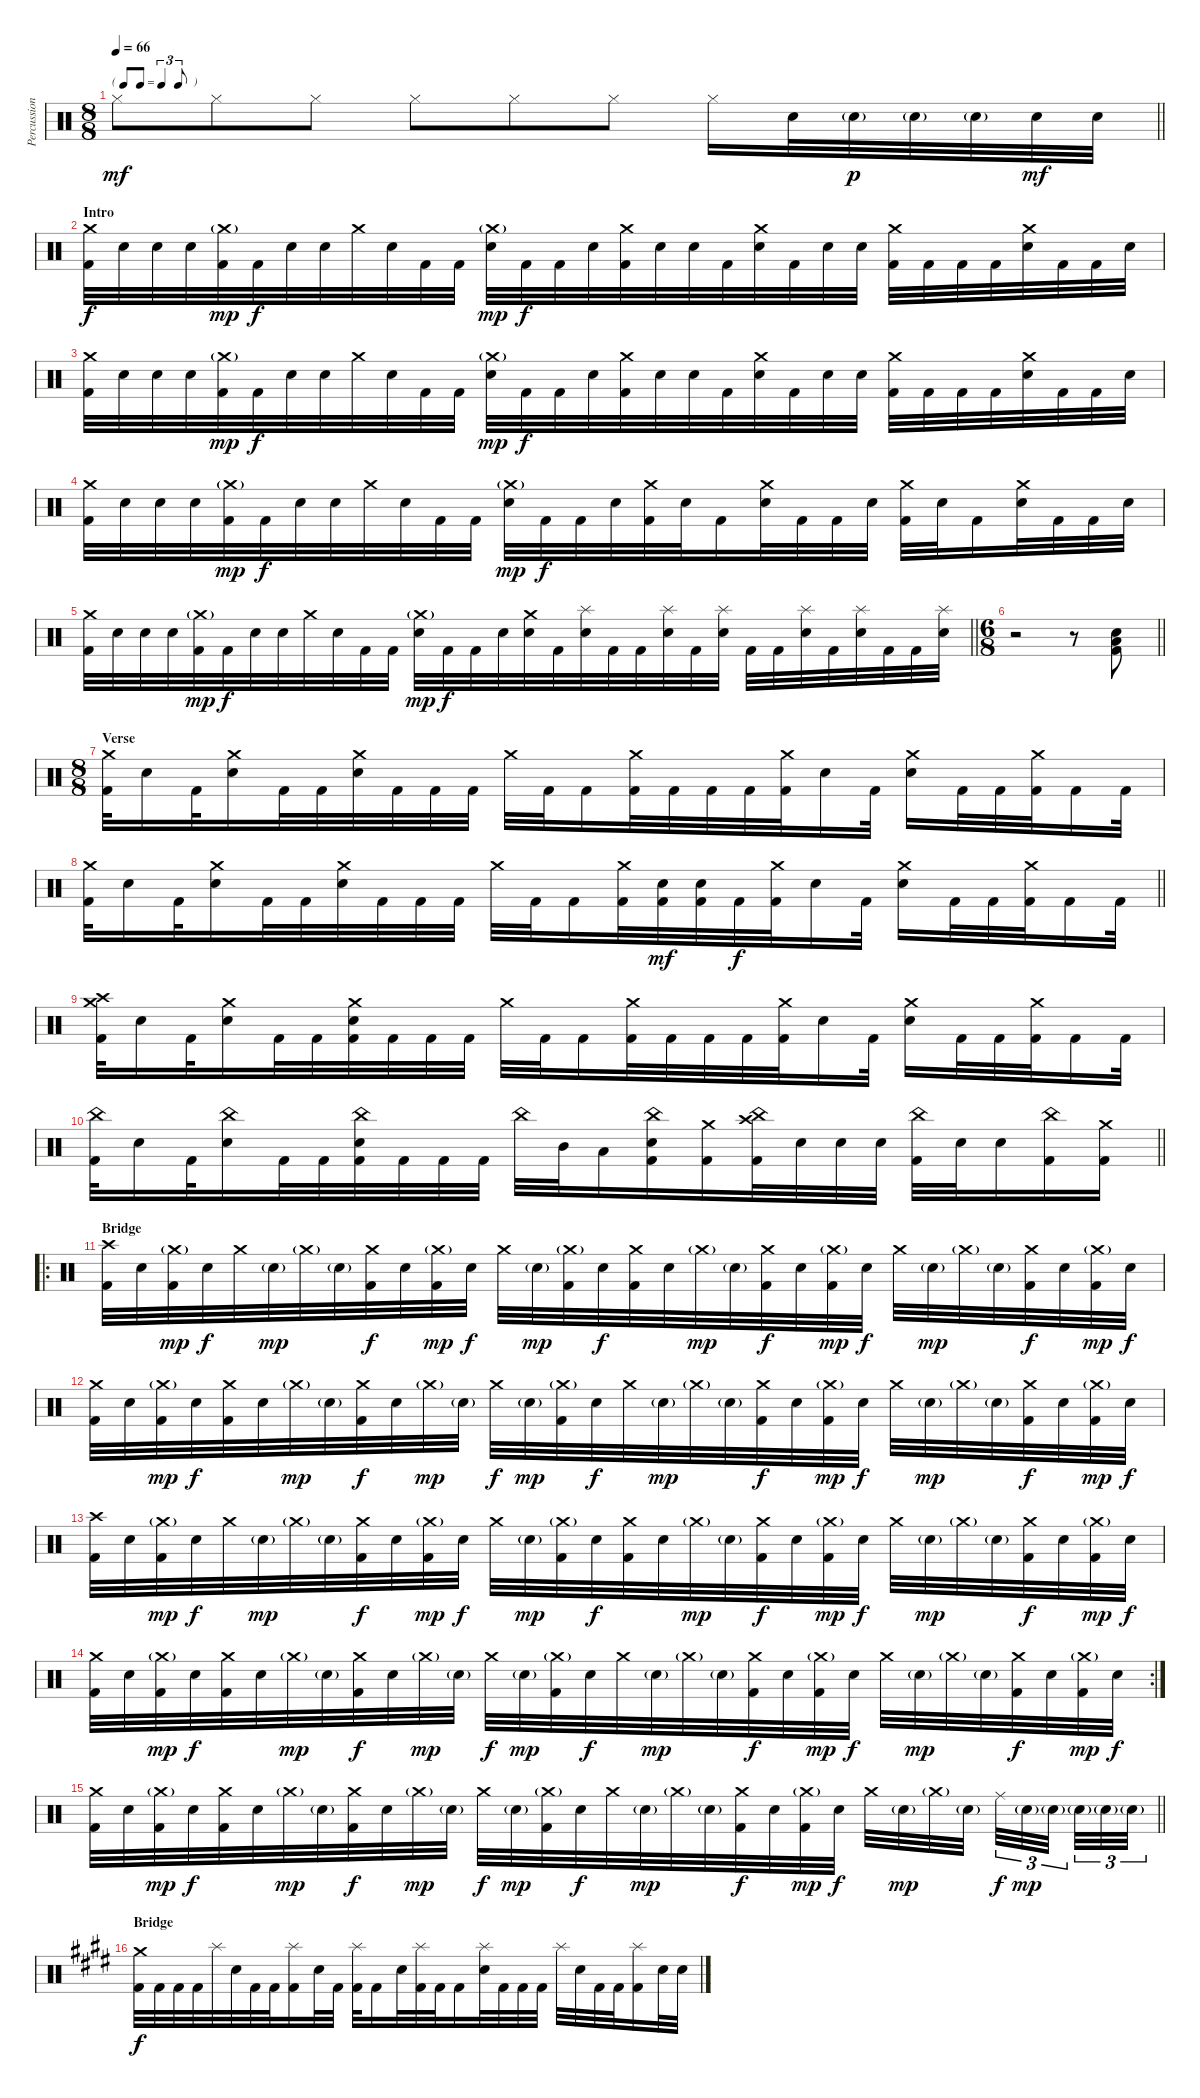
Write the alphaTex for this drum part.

\track ("Percussion" "Percussion") {instrument percussion}
\staff {score}
\articulation defaults
\ts (8 8)
\tf triplet8th
\tempo 66
\clef neutral
\barLineRight lightlight
\ks c "Hi-Hat (closed)".8{dy mf} "Hi-Hat (closed)".8 "Hi-Hat (closed)".8 "Hi-Hat (closed)".8 "Hi-Hat (closed)".8 "Hi-Hat (closed)".8 "Hi-Hat (closed)".16 "Electric Snare (hit)".32 "Electric Snare (hit)"{g}.32{dy p} "Electric Snare (hit)"{g}.32 "Electric Snare (hit)"{g}.32 "Electric Snare (hit)".32{dy mf} "Electric Snare (hit)".32
|
\section ("" "Intro")
("Crash medium (hit)" "Kick (hit) 2").32{dy f} "Electric Snare (hit)".32 "Electric Snare (hit)".32 "Electric Snare (hit)".32 ("Crash medium (hit)"{g} "Kick (hit) 2").32{dy mp} "Kick (hit) 2".32{dy f} "Electric Snare (hit)".32 "Electric Snare (hit)".32 "Crash medium (hit)".32 "Electric Snare (hit)".32 "Kick (hit) 2".32 "Kick (hit) 2".32 ("Crash medium (hit)"{g} "Electric Snare (hit)").32{dy mp} "Kick (hit) 2".32{dy f} "Kick (hit) 2".32 "Electric Snare (hit)".32 ("Crash medium (hit)" "Kick (hit) 2").32 "Electric Snare (hit)".32 "Electric Snare (hit)".32 "Kick (hit) 2".32 ("Crash medium (hit)" "Electric Snare (hit)").32 "Kick (hit) 2".32 "Electric Snare (hit)".32 "Electric Snare (hit)".32 ("Crash medium (hit)" "Kick (hit) 2").32 "Kick (hit) 2".32 "Kick (hit) 2".32 "Kick (hit) 2".32 ("Crash medium (hit)" "Electric Snare (hit)").32 "Kick (hit) 2".32 "Kick (hit) 2".32 "Electric Snare (hit)".32 |
("Crash medium (hit)" "Kick (hit) 2").32 "Electric Snare (hit)".32 "Electric Snare (hit)".32 "Electric Snare (hit)".32 ("Crash medium (hit)"{g} "Kick (hit) 2").32{dy mp} "Kick (hit) 2".32{dy f} "Electric Snare (hit)".32 "Electric Snare (hit)".32 "Crash medium (hit)".32 "Electric Snare (hit)".32 "Kick (hit) 2".32 "Kick (hit) 2".32 ("Crash medium (hit)"{g} "Electric Snare (hit)").32{dy mp} "Kick (hit) 2".32{dy f} "Kick (hit) 2".32 "Electric Snare (hit)".32 ("Crash medium (hit)" "Kick (hit) 2").32 "Electric Snare (hit)".32 "Electric Snare (hit)".32 "Kick (hit) 2".32 ("Crash medium (hit)" "Electric Snare (hit)").32 "Kick (hit) 2".32 "Electric Snare (hit)".32 "Electric Snare (hit)".32 ("Crash medium (hit)" "Kick (hit) 2").32 "Kick (hit) 2".32 "Kick (hit) 2".32 "Kick (hit) 2".32 ("Crash medium (hit)" "Electric Snare (hit)").32 "Kick (hit) 2".32 "Kick (hit) 2".32 "Electric Snare (hit)".32 |
("Crash medium (hit)" "Kick (hit) 2").32 "Electric Snare (hit)".32 "Electric Snare (hit)".32 "Electric Snare (hit)".32 ("Crash medium (hit)"{g} "Kick (hit) 2").32{dy mp} "Kick (hit) 2".32{dy f} "Electric Snare (hit)".32 "Electric Snare (hit)".32 "Crash medium (hit)".32 "Electric Snare (hit)".32 "Kick (hit) 2".32 "Kick (hit) 2".32 ("Crash medium (hit)"{g} "Electric Snare (hit)").32{dy mp} "Kick (hit) 2".32{dy f} "Kick (hit) 2".32 "Electric Snare (hit)".32 ("Crash medium (hit)" "Kick (hit) 2").32 "Electric Snare (hit)".32 "Kick (hit) 2".16 ("Crash medium (hit)" "Electric Snare (hit)").32 "Kick (hit) 2".32 "Kick (hit) 2".32 "Electric Snare (hit)".32 ("Crash medium (hit)" "Kick (hit) 2").32 "Electric Snare (hit)".32 "Kick (hit) 2".16 ("Crash medium (hit)" "Electric Snare (hit)").32 "Kick (hit) 2".32 "Kick (hit) 2".32 "Electric Snare (hit)".32 |
\barLineRight lightlight
("Crash medium (hit)" "Kick (hit) 2").32 "Electric Snare (hit)".32 "Electric Snare (hit)".32 "Electric Snare (hit)".32 ("Crash medium (hit)"{g} "Kick (hit) 2").32{dy mp} "Kick (hit) 2".32{dy f} "Electric Snare (hit)".32 "Electric Snare (hit)".32 "Crash medium (hit)".32 "Electric Snare (hit)".32 "Kick (hit) 2".32 "Kick (hit) 2".32 ("Crash medium (hit)"{g} "Electric Snare (hit)").32{dy mp} "Kick (hit) 2".32{dy f} "Kick (hit) 2".32 "Electric Snare (hit)".32 ("Crash medium (hit)" "Electric Snare (hit)").32 "Kick (hit) 2".32 ("Splash (hit)" "Electric Snare (hit)").32 "Kick (hit) 2".32 "Kick (hit) 2".32 ("Splash (hit)" "Electric Snare (hit)").32 "Kick (hit) 2".32 ("Splash (hit)" "Electric Snare (hit)").32 "Kick (hit) 2".32 "Kick (hit) 2".32 ("Splash (hit)" "Electric Snare (hit)").32 "Kick (hit) 2".32 ("Splash (hit)" "Electric Snare (hit)").32 "Kick (hit) 2".32 "Kick (hit) 2".32 ("Splash (hit)" "Electric Snare (hit)").32 |
\ts (6 8)
\barLineRight lightlight
r.2 r.8 ("Electric Snare (hit)" "Low Floor Tom (hit)" "Kick (hit) 2").8 |
\ts (8 8)
\section ("" "Verse")
("Crash medium (hit)" "Kick (hit) 2").32 "Electric Snare (hit)".16 "Kick (hit) 2".32 ("Crash medium (hit)" "Electric Snare (hit)").16 "Kick (hit) 2".32 "Kick (hit) 2".32 ("Crash medium (hit)" "Electric Snare (hit)").32 "Kick (hit) 2".32 "Kick (hit) 2".32 "Kick (hit) 2".32 "Crash medium (hit)".32 "Kick (hit) 2".32 "Kick (hit) 2".16 ("Crash medium (hit)" "Kick (hit) 2").32 "Kick (hit) 2".32 "Kick (hit) 2".32 "Kick (hit) 2".32 ("Crash medium (hit)" "Kick (hit) 2").32 "Electric Snare (hit)".16 "Kick (hit) 2".32 ("Crash medium (hit)" "Electric Snare (hit)").16 "Kick (hit) 2".32 "Kick (hit) 2".32 ("Crash medium (hit)" "Kick (hit) 2").32 "Kick (hit) 2".16 "Kick (hit) 2".32 |
\barLineRight lightlight
("Crash medium (hit)" "Kick (hit) 2").32 "Electric Snare (hit)".16 "Kick (hit) 2".32 ("Crash medium (hit)" "Electric Snare (hit)").16 "Kick (hit) 2".32 "Kick (hit) 2".32 ("Crash medium (hit)" "Electric Snare (hit)").32 "Kick (hit) 2".32 "Kick (hit) 2".32 "Kick (hit) 2".32 "Crash medium (hit)".32 "Kick (hit) 2".32 "Kick (hit) 2".16 ("Crash medium (hit)" "Kick (hit) 2").32 ("Electric Snare (hit)" "Kick (hit) 2").32{dy mf} ("Electric Snare (hit)" "Kick (hit) 2").32 "Kick (hit) 2".32{dy f} ("Crash medium (hit)" "Kick (hit) 2").32 "Electric Snare (hit)".16 "Kick (hit) 2".32 ("Crash medium (hit)" "Electric Snare (hit)").16 "Kick (hit) 2".32 "Kick (hit) 2".32 ("Crash medium (hit)" "Kick (hit) 2").32 "Kick (hit) 2".16 "Kick (hit) 2".32 |
("Crash medium (hit)" "Crash high (hit)" "Kick (hit) 2").32 "Electric Snare (hit)".16 "Kick (hit) 2".32 ("Crash medium (hit)" "Electric Snare (hit)").16 "Kick (hit) 2".32 "Kick (hit) 2".32 ("Crash medium (hit)" "Electric Snare (hit)" "Kick (hit) 2").32 "Kick (hit) 2".32 "Kick (hit) 2".32 "Kick (hit) 2".32 "Crash medium (hit)".32 "Kick (hit) 2".32 "Kick (hit) 2".16 ("Crash medium (hit)" "Kick (hit) 2").32 "Kick (hit) 2".32 "Kick (hit) 2".32 "Kick (hit) 2".32 ("Crash medium (hit)" "Kick (hit) 2").32 "Electric Snare (hit)".16 "Kick (hit) 2".32 ("Crash medium (hit)" "Electric Snare (hit)").16 "Kick (hit) 2".32 "Kick (hit) 2".32 ("Crash medium (hit)" "Kick (hit) 2").32 "Kick (hit) 2".16 "Kick (hit) 2".32 |
\barLineRight lightlight
("China (hit)" "Kick (hit) 2").32 "Electric Snare (hit)".16 "Kick (hit) 2".32 ("China (hit)" "Electric Snare (hit)").16 "Kick (hit) 2".32 "Kick (hit) 2".32 ("China (hit)" "Electric Snare (hit)" "Kick (hit) 2").32 "Kick (hit) 2".32 "Kick (hit) 2".32 "Kick (hit) 2".32 "China (hit)".32 "Mid Tom (hit)".32 "Low Tom (hit)".16 ("China (hit)" "Electric Snare (hit)" "Kick (hit) 2").16 ("Crash medium (hit)" "Kick (hit) 2").16 ("China (hit)" "Crash high (hit)" "Kick (hit) 2").32 "Electric Snare (hit)".32 "Electric Snare (hit)".32 "Electric Snare (hit)".32 ("China (hit)" "Kick (hit) 2").32 "Electric Snare (hit)".32 "Electric Snare (hit)".16 ("China (hit)" "Kick (hit) 2").16 ("Crash medium (hit)" "Kick (hit) 2").16 |
\ro
\section ("" "Bridge")
("Crash high (hit)" "Kick (hit) 2").32 "Electric Snare (hit)".32 ("Crash medium (hit)"{g} "Kick (hit) 2").32{dy mp} "Electric Snare (hit)".32{dy f} "Crash medium (hit)".32 "Electric Snare (hit)"{g}.32{dy mp} "Crash medium (hit)"{g}.32 "Electric Snare (hit)"{g}.32 ("Crash medium (hit)" "Kick (hit) 2").32{dy f} "Electric Snare (hit)".32 ("Crash medium (hit)"{g} "Kick (hit) 2").32{dy mp} "Electric Snare (hit)".32{dy f} "Crash medium (hit)".32 "Electric Snare (hit)"{g}.32{dy mp} ("Crash medium (hit)"{g} "Kick (hit) 2").32 "Electric Snare (hit)".32{dy f} ("Crash medium (hit)" "Kick (hit) 2").32 "Electric Snare (hit)".32 "Crash medium (hit)"{g}.32{dy mp} "Electric Snare (hit)"{g}.32 ("Crash medium (hit)" "Kick (hit) 2").32{dy f} "Electric Snare (hit)".32 ("Crash medium (hit)"{g} "Kick (hit) 2").32{dy mp} "Electric Snare (hit)".32{dy f} "Crash medium (hit)".32 "Electric Snare (hit)"{g}.32{dy mp} "Crash medium (hit)"{g}.32 "Electric Snare (hit)"{g}.32 ("Crash medium (hit)" "Kick (hit) 2").32{dy f} "Electric Snare (hit)".32 ("Crash medium (hit)"{g} "Kick (hit) 2").32{dy mp} "Electric Snare (hit)".32{dy f} |
("Crash medium (hit)" "Kick (hit) 2").32 "Electric Snare (hit)".32 ("Crash medium (hit)"{g} "Kick (hit) 2").32{dy mp} "Electric Snare (hit)".32{dy f} ("Crash medium (hit)" "Kick (hit) 2").32 "Electric Snare (hit)".32 "Crash medium (hit)"{g}.32{dy mp} "Electric Snare (hit)"{g}.32 ("Crash medium (hit)" "Kick (hit) 2").32{dy f} "Electric Snare (hit)".32 "Crash medium (hit)"{g}.32{dy mp} "Electric Snare (hit)"{g}.32 "Crash medium (hit)".32{dy f} "Electric Snare (hit)"{g}.32{dy mp} ("Crash medium (hit)"{g} "Kick (hit) 2").32 "Electric Snare (hit)".32{dy f} "Crash medium (hit)".32 "Electric Snare (hit)"{g}.32{dy mp} "Crash medium (hit)"{g}.32 "Electric Snare (hit)"{g}.32 ("Crash medium (hit)" "Kick (hit) 2").32{dy f} "Electric Snare (hit)".32 ("Crash medium (hit)"{g} "Kick (hit) 2").32{dy mp} "Electric Snare (hit)".32{dy f} "Crash medium (hit)".32 "Electric Snare (hit)"{g}.32{dy mp} "Crash medium (hit)"{g}.32 "Electric Snare (hit)"{g}.32 ("Crash medium (hit)" "Kick (hit) 2").32{dy f} "Electric Snare (hit)".32 ("Crash medium (hit)"{g} "Kick (hit) 2").32{dy mp} "Electric Snare (hit)".32{dy f} |
("Crash high (hit)" "Kick (hit) 2").32 "Electric Snare (hit)".32 ("Crash medium (hit)"{g} "Kick (hit) 2").32{dy mp} "Electric Snare (hit)".32{dy f} "Crash medium (hit)".32 "Electric Snare (hit)"{g}.32{dy mp} "Crash medium (hit)"{g}.32 "Electric Snare (hit)"{g}.32 ("Crash medium (hit)" "Kick (hit) 2").32{dy f} "Electric Snare (hit)".32 ("Crash medium (hit)"{g} "Kick (hit) 2").32{dy mp} "Electric Snare (hit)".32{dy f} "Crash medium (hit)".32 "Electric Snare (hit)"{g}.32{dy mp} ("Crash medium (hit)"{g} "Kick (hit) 2").32 "Electric Snare (hit)".32{dy f} ("Crash medium (hit)" "Kick (hit) 2").32 "Electric Snare (hit)".32 "Crash medium (hit)"{g}.32{dy mp} "Electric Snare (hit)"{g}.32 ("Crash medium (hit)" "Kick (hit) 2").32{dy f} "Electric Snare (hit)".32 ("Crash medium (hit)"{g} "Kick (hit) 2").32{dy mp} "Electric Snare (hit)".32{dy f} "Crash medium (hit)".32 "Electric Snare (hit)"{g}.32{dy mp} "Crash medium (hit)"{g}.32 "Electric Snare (hit)"{g}.32 ("Crash medium (hit)" "Kick (hit) 2").32{dy f} "Electric Snare (hit)".32 ("Crash medium (hit)"{g} "Kick (hit) 2").32{dy mp} "Electric Snare (hit)".32{dy f} |
\rc 2
("Crash medium (hit)" "Kick (hit) 2").32 "Electric Snare (hit)".32 ("Crash medium (hit)"{g} "Kick (hit) 2").32{dy mp} "Electric Snare (hit)".32{dy f} ("Crash medium (hit)" "Kick (hit) 2").32 "Electric Snare (hit)".32 "Crash medium (hit)"{g}.32{dy mp} "Electric Snare (hit)"{g}.32 ("Crash medium (hit)" "Kick (hit) 2").32{dy f} "Electric Snare (hit)".32 "Crash medium (hit)"{g}.32{dy mp} "Electric Snare (hit)"{g}.32 "Crash medium (hit)".32{dy f} "Electric Snare (hit)"{g}.32{dy mp} ("Crash medium (hit)"{g} "Kick (hit) 2").32 "Electric Snare (hit)".32{dy f} "Crash medium (hit)".32 "Electric Snare (hit)"{g}.32{dy mp} "Crash medium (hit)"{g}.32 "Electric Snare (hit)"{g}.32 ("Crash medium (hit)" "Kick (hit) 2").32{dy f} "Electric Snare (hit)".32 ("Crash medium (hit)"{g} "Kick (hit) 2").32{dy mp} "Electric Snare (hit)".32{dy f} "Crash medium (hit)".32 "Electric Snare (hit)"{g}.32{dy mp} "Crash medium (hit)"{g}.32 "Electric Snare (hit)"{g}.32 ("Crash medium (hit)" "Kick (hit) 2").32{dy f} "Electric Snare (hit)".32 ("Crash medium (hit)"{g} "Kick (hit) 2").32{dy mp} "Electric Snare (hit)".32{dy f} |
\barLineRight lightlight
("Crash medium (hit)" "Kick (hit) 2").32 "Electric Snare (hit)".32 ("Crash medium (hit)"{g} "Kick (hit) 2").32{dy mp} "Electric Snare (hit)".32{dy f} ("Crash medium (hit)" "Kick (hit) 2").32 "Electric Snare (hit)".32 "Crash medium (hit)"{g}.32{dy mp} "Electric Snare (hit)"{g}.32 ("Crash medium (hit)" "Kick (hit) 2").32{dy f} "Electric Snare (hit)".32 "Crash medium (hit)"{g}.32{dy mp} "Electric Snare (hit)"{g}.32 "Crash medium (hit)".32{dy f} "Electric Snare (hit)"{g}.32{dy mp} ("Crash medium (hit)"{g} "Kick (hit) 2").32 "Electric Snare (hit)".32{dy f} "Crash medium (hit)".32 "Electric Snare (hit)"{g}.32{dy mp} "Crash medium (hit)"{g}.32 "Electric Snare (hit)"{g}.32 ("Crash medium (hit)" "Kick (hit) 2").32{dy f} "Electric Snare (hit)".32 ("Crash medium (hit)"{g} "Kick (hit) 2").32{dy mp} "Electric Snare (hit)".32{dy f} "Crash medium (hit)".32 "Electric Snare (hit)"{g}.32{dy mp} "Crash medium (hit)"{g}.32 "Electric Snare (hit)"{g}.32 "Ride (middle)".32{tu (3 2) dy f} "Electric Snare (hit)"{g}.32{tu (3 2) dy mp} "Electric Snare (hit)"{g}.32{tu (3 2)} "Electric Snare (hit)"{g}.32{tu (3 2)} "Electric Snare (hit)"{g}.32{tu (3 2)} "Electric Snare (hit)"{g}.32{tu (3 2)} |
\section ("" "Bridge")
\ks e
("Crash medium (hit)" "Kick (hit) 2").32{dy f} "Kick (hit) 2".32 "Kick (hit) 2".32 "Kick (hit) 2".32 "Splash (hit)".32 "Electric Snare (hit)".32 "Kick (hit) 2".32 "Kick (hit) 2".32 ("Splash (hit)" "Kick (hit) 2").16 "Electric Snare (hit)".32 "Kick (hit) 2".32 ("Splash (hit)" "Kick (hit) 2").32 "Kick (hit) 2".16 "Electric Snare (hit)".32 ("Splash (hit)" "Kick (hit) 2").32 "Kick (hit) 2".32 "Kick (hit) 2".16 ("Splash (hit)" "Electric Snare (hit)").32 "Kick (hit) 2".32 "Kick (hit) 2".32 "Kick (hit) 2".32 "Splash (hit)".32 "Electric Snare (hit)".32 "Kick (hit) 2".32 "Kick (hit) 2".32 ("Splash (hit)" "Kick (hit) 2").16 "Electric Snare (hit)".32 "Electric Snare (hit)".32
